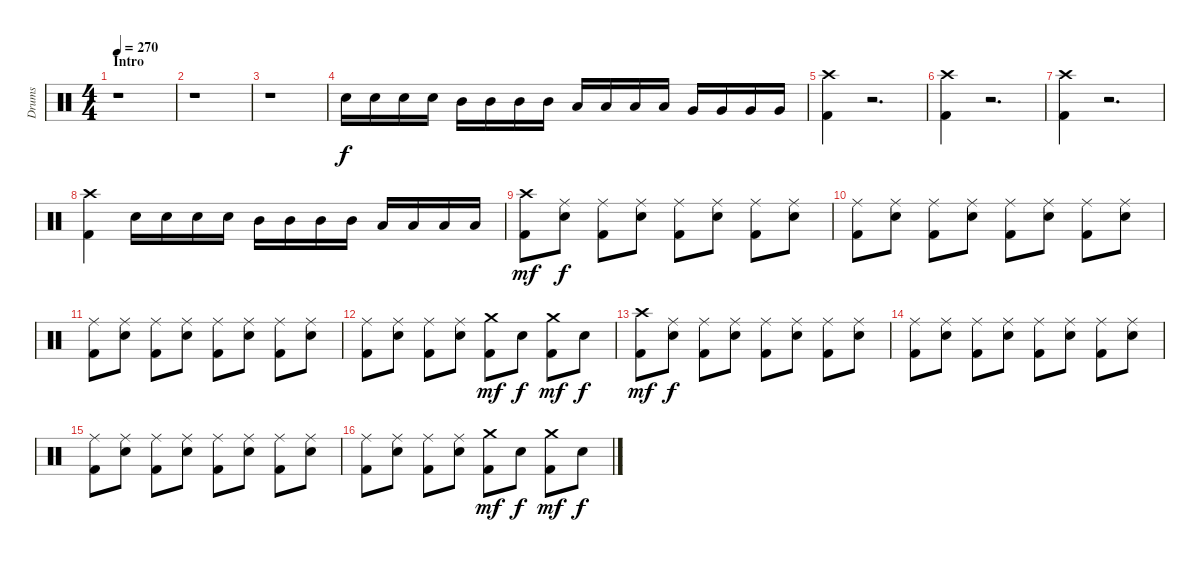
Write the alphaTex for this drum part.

\track ("Drums" "Drums") {instrument percussion}
\staff {score}
\articulation defaults
\ts (4 4)
\section ("" "Intro")
\tempo 270
\clef neutral
\ks c
r.1{dy f} |
r.1 |
r.1 |
"Snare (hit) 2".16 "Snare (hit) 2".16 "Snare (hit) 2".16 "Snare (hit) 2".16 "Mid Tom (hit)".16 "Mid Tom (hit)".16 "Mid Tom (hit)".16 "Mid Tom (hit)".16 "Low Tom (hit)".16 "Low Tom (hit)".16 "Low Tom (hit)".16 "Low Tom (hit)".16 "Very Low Tom (hit)".16 "Very Low Tom (hit)".16 "Very Low Tom (hit)".16 "Very Low Tom (hit)".16 |
("Crash high (hit)" "Kick (hit) 2").4 r.2{d} |
("Crash high (hit)" "Kick (hit) 2").4 r.2{d} |
("Crash high (hit)" "Kick (hit) 2").4 r.2{d} |
("Crash high (hit)" "Kick (hit) 2").4 "Snare (hit) 2".16 "Snare (hit) 2".16 "Snare (hit) 2".16 "Snare (hit) 2".16 "Mid Tom (hit)".16 "Mid Tom (hit)".16 "Mid Tom (hit)".16 "Mid Tom (hit)".16 "Low Tom (hit)".16 "Low Tom (hit)".16 "Low Tom (hit)".16 "Low Tom (hit)".16 |
("Crash high (hit)" "Kick (hit) 2").8{dy mf} ("Ride (middle)" "Snare (hit) 2").8{dy f} ("Ride (middle)" "Kick (hit) 2").8 ("Ride (middle)" "Snare (hit) 2").8 ("Ride (middle)" "Kick (hit) 2").8 ("Ride (middle)" "Snare (hit) 2").8 ("Ride (middle)" "Kick (hit) 2").8 ("Ride (middle)" "Snare (hit) 2").8 |
("Ride (middle)" "Kick (hit) 2").8 ("Ride (middle)" "Snare (hit) 2").8 ("Ride (middle)" "Kick (hit) 2").8 ("Ride (middle)" "Snare (hit) 2").8 ("Ride (middle)" "Kick (hit) 2").8 ("Ride (middle)" "Snare (hit) 2").8 ("Ride (middle)" "Kick (hit) 2").8 ("Ride (middle)" "Snare (hit) 2").8 |
("Ride (middle)" "Kick (hit) 2").8 ("Ride (middle)" "Snare (hit) 2").8 ("Ride (middle)" "Kick (hit) 2").8 ("Ride (middle)" "Snare (hit) 2").8 ("Ride (middle)" "Kick (hit) 2").8 ("Ride (middle)" "Snare (hit) 2").8 ("Ride (middle)" "Kick (hit) 2").8 ("Ride (middle)" "Snare (hit) 2").8 |
("Ride (middle)" "Kick (hit) 2").8 ("Ride (middle)" "Snare (hit) 2").8 ("Ride (middle)" "Kick (hit) 2").8 ("Ride (middle)" "Snare (hit) 2").8 ("Crash medium (hit)" "Kick (hit) 2").8{dy mf} "Snare (hit) 2".8{dy f} ("Crash medium (hit)" "Kick (hit) 2").8{dy mf} "Snare (hit) 2".8{dy f} |
("Crash high (hit)" "Kick (hit) 2").8{dy mf} ("Ride (middle)" "Snare (hit) 2").8{dy f} ("Ride (middle)" "Kick (hit) 2").8 ("Ride (middle)" "Snare (hit) 2").8 ("Ride (middle)" "Kick (hit) 2").8 ("Ride (middle)" "Snare (hit) 2").8 ("Ride (middle)" "Kick (hit) 2").8 ("Ride (middle)" "Snare (hit) 2").8 |
("Ride (middle)" "Kick (hit) 2").8 ("Ride (middle)" "Snare (hit) 2").8 ("Ride (middle)" "Kick (hit) 2").8 ("Ride (middle)" "Snare (hit) 2").8 ("Ride (middle)" "Kick (hit) 2").8 ("Ride (middle)" "Snare (hit) 2").8 ("Ride (middle)" "Kick (hit) 2").8 ("Ride (middle)" "Snare (hit) 2").8 |
("Ride (middle)" "Kick (hit) 2").8 ("Ride (middle)" "Snare (hit) 2").8 ("Ride (middle)" "Kick (hit) 2").8 ("Ride (middle)" "Snare (hit) 2").8 ("Ride (middle)" "Kick (hit) 2").8 ("Ride (middle)" "Snare (hit) 2").8 ("Ride (middle)" "Kick (hit) 2").8 ("Ride (middle)" "Snare (hit) 2").8 |
("Ride (middle)" "Kick (hit) 2").8 ("Ride (middle)" "Snare (hit) 2").8 ("Ride (middle)" "Kick (hit) 2").8 ("Ride (middle)" "Snare (hit) 2").8 ("Crash medium (hit)" "Kick (hit) 2").8{dy mf} "Snare (hit) 2".8{dy f} ("Crash medium (hit)" "Kick (hit) 2").8{dy mf} "Snare (hit) 2".8{dy f}
